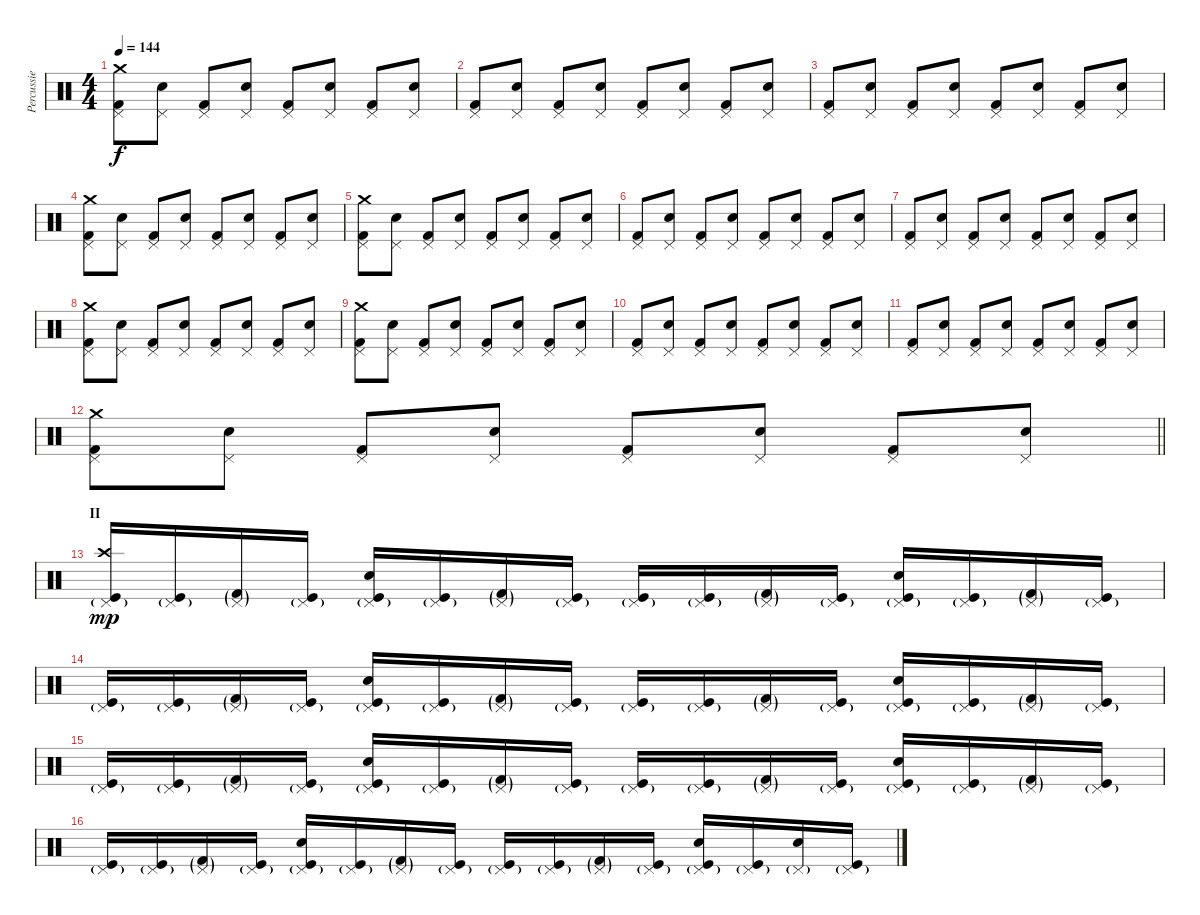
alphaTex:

\track ("Percussie" "Percussie") {instrument percussion}
\staff {score}
\articulation defaults
\ts (4 4)
\tempo 144
\clef neutral
\ks c
("Crash medium (hit)" "Kick (hit) 2" "Pedal Hi-Hat (hit)").8{dy f} ("Electric Snare (hit)" "Pedal Hi-Hat (hit)").8 ("Kick (hit) 2" "Pedal Hi-Hat (hit)").8 ("Electric Snare (hit)" "Pedal Hi-Hat (hit)").8 ("Kick (hit) 2" "Pedal Hi-Hat (hit)").8 ("Electric Snare (hit)" "Pedal Hi-Hat (hit)").8 ("Kick (hit) 2" "Pedal Hi-Hat (hit)").8 ("Electric Snare (hit)" "Pedal Hi-Hat (hit)").8 |
("Kick (hit) 2" "Pedal Hi-Hat (hit)").8 ("Electric Snare (hit)" "Pedal Hi-Hat (hit)").8 ("Kick (hit) 2" "Pedal Hi-Hat (hit)").8 ("Electric Snare (hit)" "Pedal Hi-Hat (hit)").8 ("Kick (hit) 2" "Pedal Hi-Hat (hit)").8 ("Electric Snare (hit)" "Pedal Hi-Hat (hit)").8 ("Kick (hit) 2" "Pedal Hi-Hat (hit)").8 ("Electric Snare (hit)" "Pedal Hi-Hat (hit)").8 |
("Kick (hit) 2" "Pedal Hi-Hat (hit)").8 ("Electric Snare (hit)" "Pedal Hi-Hat (hit)").8 ("Kick (hit) 2" "Pedal Hi-Hat (hit)").8 ("Electric Snare (hit)" "Pedal Hi-Hat (hit)").8 ("Kick (hit) 2" "Pedal Hi-Hat (hit)").8 ("Electric Snare (hit)" "Pedal Hi-Hat (hit)").8 ("Kick (hit) 2" "Pedal Hi-Hat (hit)").8 ("Electric Snare (hit)" "Pedal Hi-Hat (hit)").8 |
("Crash medium (hit)" "Kick (hit) 2" "Pedal Hi-Hat (hit)").8 ("Electric Snare (hit)" "Pedal Hi-Hat (hit)").8 ("Kick (hit) 2" "Pedal Hi-Hat (hit)").8 ("Electric Snare (hit)" "Pedal Hi-Hat (hit)").8 ("Kick (hit) 2" "Pedal Hi-Hat (hit)").8 ("Electric Snare (hit)" "Pedal Hi-Hat (hit)").8 ("Kick (hit) 2" "Pedal Hi-Hat (hit)").8 ("Electric Snare (hit)" "Pedal Hi-Hat (hit)").8 |
("Crash medium (hit)" "Kick (hit) 2" "Pedal Hi-Hat (hit)").8 ("Electric Snare (hit)" "Pedal Hi-Hat (hit)").8 ("Kick (hit) 2" "Pedal Hi-Hat (hit)").8 ("Electric Snare (hit)" "Pedal Hi-Hat (hit)").8 ("Kick (hit) 2" "Pedal Hi-Hat (hit)").8 ("Electric Snare (hit)" "Pedal Hi-Hat (hit)").8 ("Kick (hit) 2" "Pedal Hi-Hat (hit)").8 ("Electric Snare (hit)" "Pedal Hi-Hat (hit)").8 |
("Kick (hit) 2" "Pedal Hi-Hat (hit)").8 ("Electric Snare (hit)" "Pedal Hi-Hat (hit)").8 ("Kick (hit) 2" "Pedal Hi-Hat (hit)").8 ("Electric Snare (hit)" "Pedal Hi-Hat (hit)").8 ("Kick (hit) 2" "Pedal Hi-Hat (hit)").8 ("Electric Snare (hit)" "Pedal Hi-Hat (hit)").8 ("Kick (hit) 2" "Pedal Hi-Hat (hit)").8 ("Electric Snare (hit)" "Pedal Hi-Hat (hit)").8 |
("Kick (hit) 2" "Pedal Hi-Hat (hit)").8 ("Electric Snare (hit)" "Pedal Hi-Hat (hit)").8 ("Kick (hit) 2" "Pedal Hi-Hat (hit)").8 ("Electric Snare (hit)" "Pedal Hi-Hat (hit)").8 ("Kick (hit) 2" "Pedal Hi-Hat (hit)").8 ("Electric Snare (hit)" "Pedal Hi-Hat (hit)").8 ("Kick (hit) 2" "Pedal Hi-Hat (hit)").8 ("Electric Snare (hit)" "Pedal Hi-Hat (hit)").8 |
("Crash medium (hit)" "Kick (hit) 2" "Pedal Hi-Hat (hit)").8 ("Electric Snare (hit)" "Pedal Hi-Hat (hit)").8 ("Kick (hit) 2" "Pedal Hi-Hat (hit)").8 ("Electric Snare (hit)" "Pedal Hi-Hat (hit)").8 ("Kick (hit) 2" "Pedal Hi-Hat (hit)").8 ("Electric Snare (hit)" "Pedal Hi-Hat (hit)").8 ("Kick (hit) 2" "Pedal Hi-Hat (hit)").8 ("Electric Snare (hit)" "Pedal Hi-Hat (hit)").8 |
("Crash medium (hit)" "Kick (hit) 2" "Pedal Hi-Hat (hit)").8 ("Electric Snare (hit)" "Pedal Hi-Hat (hit)").8 ("Kick (hit) 2" "Pedal Hi-Hat (hit)").8 ("Electric Snare (hit)" "Pedal Hi-Hat (hit)").8 ("Kick (hit) 2" "Pedal Hi-Hat (hit)").8 ("Electric Snare (hit)" "Pedal Hi-Hat (hit)").8 ("Kick (hit) 2" "Pedal Hi-Hat (hit)").8 ("Electric Snare (hit)" "Pedal Hi-Hat (hit)").8 |
("Kick (hit) 2" "Pedal Hi-Hat (hit)").8 ("Electric Snare (hit)" "Pedal Hi-Hat (hit)").8 ("Kick (hit) 2" "Pedal Hi-Hat (hit)").8 ("Electric Snare (hit)" "Pedal Hi-Hat (hit)").8 ("Kick (hit) 2" "Pedal Hi-Hat (hit)").8 ("Electric Snare (hit)" "Pedal Hi-Hat (hit)").8 ("Kick (hit) 2" "Pedal Hi-Hat (hit)").8 ("Electric Snare (hit)" "Pedal Hi-Hat (hit)").8 |
("Kick (hit) 2" "Pedal Hi-Hat (hit)").8 ("Electric Snare (hit)" "Pedal Hi-Hat (hit)").8 ("Kick (hit) 2" "Pedal Hi-Hat (hit)").8 ("Electric Snare (hit)" "Pedal Hi-Hat (hit)").8 ("Kick (hit) 2" "Pedal Hi-Hat (hit)").8 ("Electric Snare (hit)" "Pedal Hi-Hat (hit)").8 ("Kick (hit) 2" "Pedal Hi-Hat (hit)").8 ("Electric Snare (hit)" "Pedal Hi-Hat (hit)").8 |
\barLineRight lightlight
("Crash medium (hit)" "Kick (hit) 2" "Pedal Hi-Hat (hit)").8 ("Electric Snare (hit)" "Pedal Hi-Hat (hit)").8 ("Kick (hit) 2" "Pedal Hi-Hat (hit)").8 ("Electric Snare (hit)" "Pedal Hi-Hat (hit)").8 ("Kick (hit) 2" "Pedal Hi-Hat (hit)").8 ("Electric Snare (hit)" "Pedal Hi-Hat (hit)").8 ("Kick (hit) 2" "Pedal Hi-Hat (hit)").8 ("Electric Snare (hit)" "Pedal Hi-Hat (hit)").8 |
\section ("" "II")
("Crash high (hit)" "Kick (hit)" "Pedal Hi-Hat (hit)"{g}).16{dy mp} ("Kick (hit)" "Pedal Hi-Hat (hit)"{g}).16 ("Kick (hit) 2"{g} "Pedal Hi-Hat (hit)"{g}).16 ("Kick (hit)" "Pedal Hi-Hat (hit)"{g}).16 ("Snare (hit) 2" "Kick (hit)" "Pedal Hi-Hat (hit)"{g}).16 ("Kick (hit)" "Pedal Hi-Hat (hit)"{g}).16 ("Kick (hit) 2"{g} "Pedal Hi-Hat (hit)"{g}).16 ("Kick (hit)" "Pedal Hi-Hat (hit)"{g}).16 ("Kick (hit)" "Pedal Hi-Hat (hit)"{g}).16 ("Kick (hit)" "Pedal Hi-Hat (hit)"{g}).16 ("Kick (hit) 2"{g} "Pedal Hi-Hat (hit)"{g}).16 ("Kick (hit)" "Pedal Hi-Hat (hit)"{g}).16 ("Snare (hit) 2" "Kick (hit)" "Pedal Hi-Hat (hit)"{g}).16 ("Kick (hit)" "Pedal Hi-Hat (hit)"{g}).16 ("Kick (hit) 2"{g} "Pedal Hi-Hat (hit)"{g}).16 ("Kick (hit)" "Pedal Hi-Hat (hit)"{g}).16 |
("Kick (hit)" "Pedal Hi-Hat (hit)"{g}).16 ("Kick (hit)" "Pedal Hi-Hat (hit)"{g}).16 ("Kick (hit) 2"{g} "Pedal Hi-Hat (hit)"{g}).16 ("Kick (hit)" "Pedal Hi-Hat (hit)"{g}).16 ("Snare (hit) 2" "Kick (hit)" "Pedal Hi-Hat (hit)"{g}).16 ("Kick (hit)" "Pedal Hi-Hat (hit)"{g}).16 ("Kick (hit) 2"{g} "Pedal Hi-Hat (hit)"{g}).16 ("Kick (hit)" "Pedal Hi-Hat (hit)"{g}).16 ("Kick (hit)" "Pedal Hi-Hat (hit)"{g}).16 ("Kick (hit)" "Pedal Hi-Hat (hit)"{g}).16 ("Kick (hit) 2"{g} "Pedal Hi-Hat (hit)"{g}).16 ("Kick (hit)" "Pedal Hi-Hat (hit)"{g}).16 ("Snare (hit) 2" "Kick (hit)" "Pedal Hi-Hat (hit)"{g}).16 ("Kick (hit)" "Pedal Hi-Hat (hit)"{g}).16 ("Kick (hit) 2"{g} "Pedal Hi-Hat (hit)"{g}).16 ("Kick (hit)" "Pedal Hi-Hat (hit)"{g}).16 |
("Kick (hit)" "Pedal Hi-Hat (hit)"{g}).16 ("Kick (hit)" "Pedal Hi-Hat (hit)"{g}).16 ("Kick (hit) 2"{g} "Pedal Hi-Hat (hit)"{g}).16 ("Kick (hit)" "Pedal Hi-Hat (hit)"{g}).16 ("Snare (hit) 2" "Kick (hit)" "Pedal Hi-Hat (hit)"{g}).16 ("Kick (hit)" "Pedal Hi-Hat (hit)"{g}).16 ("Kick (hit) 2"{g} "Pedal Hi-Hat (hit)"{g}).16 ("Kick (hit)" "Pedal Hi-Hat (hit)"{g}).16 ("Kick (hit)" "Pedal Hi-Hat (hit)"{g}).16 ("Kick (hit)" "Pedal Hi-Hat (hit)"{g}).16 ("Kick (hit) 2"{g} "Pedal Hi-Hat (hit)"{g}).16 ("Kick (hit)" "Pedal Hi-Hat (hit)"{g}).16 ("Snare (hit) 2" "Kick (hit)" "Pedal Hi-Hat (hit)"{g}).16 ("Kick (hit)" "Pedal Hi-Hat (hit)"{g}).16 ("Kick (hit) 2"{g} "Pedal Hi-Hat (hit)"{g}).16 ("Kick (hit)" "Pedal Hi-Hat (hit)"{g}).16 |
("Kick (hit)" "Pedal Hi-Hat (hit)"{g}).16 ("Kick (hit)" "Pedal Hi-Hat (hit)"{g}).16 ("Kick (hit) 2"{g} "Pedal Hi-Hat (hit)"{g}).16 ("Kick (hit)" "Pedal Hi-Hat (hit)"{g}).16 ("Snare (hit) 2" "Kick (hit)" "Pedal Hi-Hat (hit)"{g}).16 ("Kick (hit)" "Pedal Hi-Hat (hit)"{g}).16 ("Kick (hit) 2"{g} "Pedal Hi-Hat (hit)"{g}).16 ("Kick (hit)" "Pedal Hi-Hat (hit)"{g}).16 ("Kick (hit)" "Pedal Hi-Hat (hit)"{g}).16 ("Kick (hit)" "Pedal Hi-Hat (hit)"{g}).16 ("Kick (hit) 2"{g} "Pedal Hi-Hat (hit)"{g}).16 ("Kick (hit)" "Pedal Hi-Hat (hit)"{g}).16 ("Snare (hit) 2" "Kick (hit)" "Pedal Hi-Hat (hit)"{g}).16 ("Kick (hit)" "Pedal Hi-Hat (hit)"{g}).16 ("Snare (hit) 2" "Pedal Hi-Hat (hit)"{g}).16 ("Kick (hit)" "Pedal Hi-Hat (hit)"{g}).16
